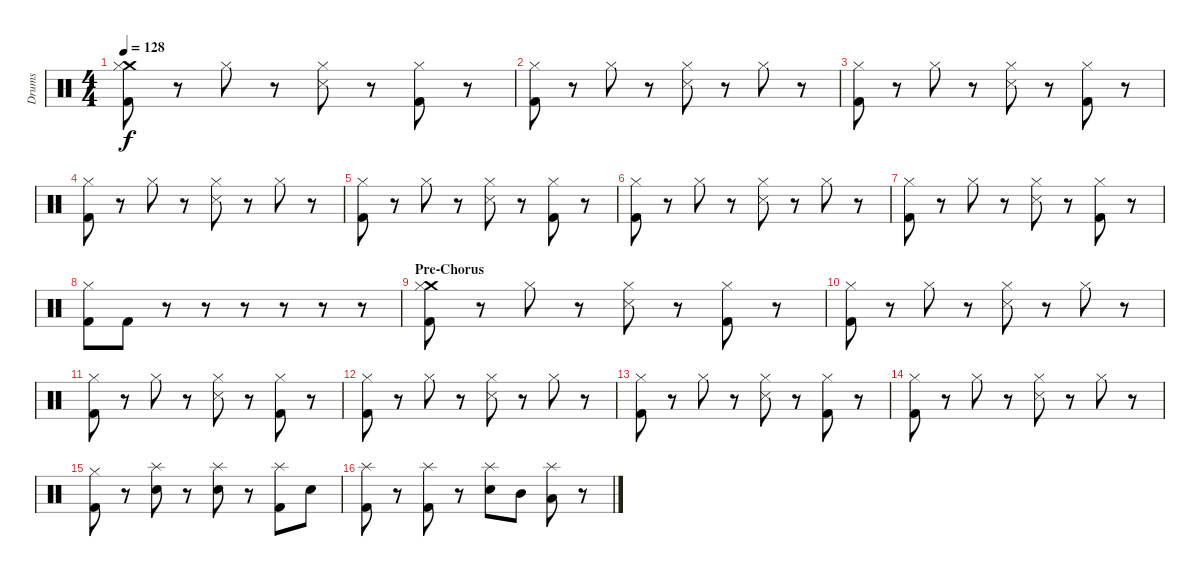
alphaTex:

\track ("Drums" "Drums") {instrument percussion}
\staff {score}
\articulation defaults
\ts (4 4)
\tempo 128
\clef neutral
\ks c
("Crash medium (hit)" "Hi-Hat (closed)" "Kick (hit) 2").8{dy f} r.8 "Hi-Hat (closed)".8 r.8 ("Snare (side stick) 3" "Hi-Hat (closed)").8 r.8 ("Hi-Hat (closed)" "Kick (hit) 2").8 r.8 |
("Hi-Hat (closed)" "Kick (hit) 2").8 r.8 "Hi-Hat (closed)".8 r.8 ("Snare (side stick) 3" "Hi-Hat (closed)").8 r.8 "Hi-Hat (closed)".8 r.8 |
("Hi-Hat (closed)" "Kick (hit) 2").8 r.8 "Hi-Hat (closed)".8 r.8 ("Snare (side stick) 3" "Hi-Hat (closed)").8 r.8 ("Hi-Hat (closed)" "Kick (hit) 2").8 r.8 |
("Hi-Hat (closed)" "Kick (hit) 2").8 r.8 "Hi-Hat (closed)".8 r.8 ("Snare (side stick) 3" "Hi-Hat (closed)").8 r.8 "Hi-Hat (closed)".8 r.8 |
("Hi-Hat (closed)" "Kick (hit) 2").8 r.8 "Hi-Hat (closed)".8 r.8 ("Snare (side stick) 3" "Hi-Hat (closed)").8 r.8 ("Hi-Hat (closed)" "Kick (hit) 2").8 r.8 |
("Hi-Hat (closed)" "Kick (hit) 2").8 r.8 "Hi-Hat (closed)".8 r.8 ("Snare (side stick) 3" "Hi-Hat (closed)").8 r.8 "Hi-Hat (closed)".8 r.8 |
("Hi-Hat (closed)" "Kick (hit) 2").8 r.8 "Hi-Hat (closed)".8 r.8 ("Snare (side stick) 3" "Hi-Hat (closed)").8 r.8 ("Hi-Hat (closed)" "Kick (hit) 2").8 r.8 |
("Hi-Hat (closed)" "Kick (hit) 2").8 "Kick (hit) 2".8 r.8 r.8 r.8 r.8 r.8 r.8 |
\section ("" "Pre-Chorus")
("Crash medium (hit)" "Hi-Hat (closed)" "Kick (hit) 2").8 r.8 "Hi-Hat (closed)".8 r.8 ("Snare (side stick) 3" "Hi-Hat (closed)").8 r.8 ("Hi-Hat (closed)" "Kick (hit) 2").8 r.8 |
("Hi-Hat (closed)" "Kick (hit) 2").8 r.8 "Hi-Hat (closed)".8 r.8 ("Snare (side stick) 3" "Hi-Hat (closed)").8 r.8 "Hi-Hat (closed)".8 r.8 |
("Hi-Hat (closed)" "Kick (hit) 2").8 r.8 "Hi-Hat (closed)".8 r.8 ("Snare (side stick) 3" "Hi-Hat (closed)").8 r.8 ("Hi-Hat (closed)" "Kick (hit) 2").8 r.8 |
("Hi-Hat (closed)" "Kick (hit) 2").8 r.8 "Hi-Hat (closed)".8 r.8 ("Snare (side stick) 3" "Hi-Hat (closed)").8 r.8 "Hi-Hat (closed)".8 r.8 |
("Hi-Hat (closed)" "Kick (hit) 2").8 r.8 "Hi-Hat (closed)".8 r.8 ("Snare (side stick) 3" "Hi-Hat (closed)").8 r.8 ("Hi-Hat (closed)" "Kick (hit) 2").8 r.8 |
("Hi-Hat (closed)" "Kick (hit) 2").8 r.8 "Hi-Hat (closed)".8 r.8 ("Snare (side stick) 3" "Hi-Hat (closed)").8 r.8 "Hi-Hat (closed)".8 r.8 |
("Hi-Hat (closed)" "Kick (hit) 2").8 r.8 ("Splash (hit)" "Snare (hit) 2").8 r.8 ("Splash (hit)" "Snare (hit) 2").8 r.8 ("Splash (hit)" "Kick (hit) 2").8 "Snare (hit) 2".8 |
("Splash (hit)" "Kick (hit) 2").8 r.8 ("Splash (hit)" "Kick (hit) 2").8 r.8 ("Snare (hit) 2" "Splash (hit)").8 "Mid Tom (hit)".8 ("Low Tom (hit)" "Splash (hit)").8 r.8
